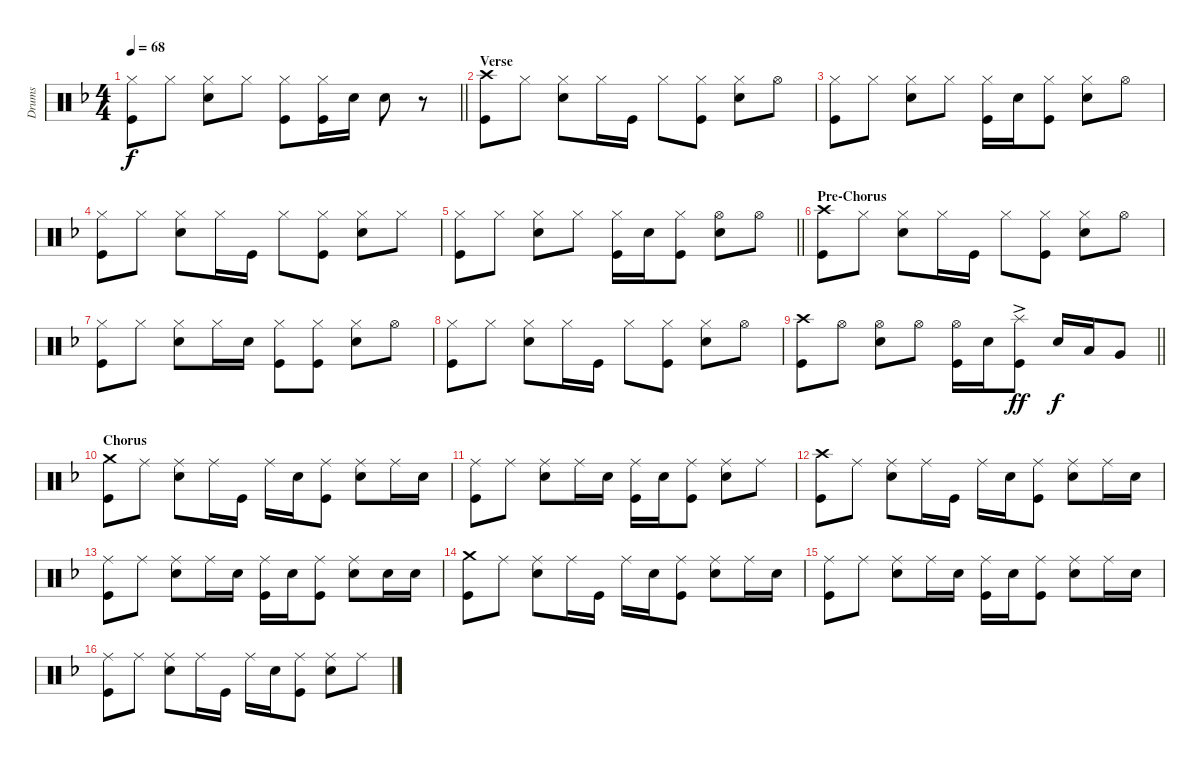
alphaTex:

\track ("Drums" "Drums") {instrument percussion}
\staff {score}
\articulation defaults
\ts (4 4)
\tempo 68
\clef neutral
\barLineRight lightlight
\ks f
("Hi-Hat (closed)" "Kick (hit)").8{dy f} "Hi-Hat (closed)".8 ("Hi-Hat (closed)" "Snare (hit) 2").8 "Hi-Hat (closed)".8 ("Hi-Hat (closed)" "Kick (hit)").8 ("Hi-Hat (closed)" "Kick (hit)").16 "Snare (hit) 2".16 "Snare (hit) 2".8 r.8 |
\section ("" "Verse")
("Crash high (hit)" "Kick (hit)").8 "Hi-Hat (closed)".8 ("Hi-Hat (closed)" "Snare (hit) 2").8 "Hi-Hat (closed)".16 "Kick (hit)".16 "Hi-Hat (closed)".8 ("Hi-Hat (closed)" "Kick (hit)").8 ("Hi-Hat (closed)" "Snare (hit) 2").8 "Hi-Hat (open)".8 |
("Hi-Hat (closed)" "Kick (hit)").8 "Hi-Hat (closed)".8 ("Hi-Hat (closed)" "Snare (hit) 2").8 "Hi-Hat (closed)".8 ("Hi-Hat (closed)" "Kick (hit)").16 "Snare (hit) 2".16 ("Hi-Hat (closed)" "Kick (hit)").8 ("Hi-Hat (closed)" "Snare (hit) 2").8 "Hi-Hat (open)".8 |
("Hi-Hat (closed)" "Kick (hit)").8 "Hi-Hat (closed)".8 ("Hi-Hat (closed)" "Snare (hit) 2").8 "Hi-Hat (closed)".16 "Kick (hit)".16 "Hi-Hat (closed)".8 ("Hi-Hat (closed)" "Kick (hit)").8 ("Hi-Hat (closed)" "Snare (hit) 2").8 "Hi-Hat (closed)".8 |
\barLineRight lightlight
("Hi-Hat (closed)" "Kick (hit)").8 "Hi-Hat (closed)".8 ("Hi-Hat (closed)" "Snare (hit) 2").8 "Hi-Hat (closed)".8 ("Hi-Hat (closed)" "Kick (hit)").16 "Snare (hit) 2".16 ("Hi-Hat (closed)" "Kick (hit)").8 ("Hi-Hat (open)" "Snare (hit) 2").8 "Hi-Hat (open)".8 |
\section ("" "Pre-Chorus")
("Crash high (hit)" "Kick (hit)").8 "Hi-Hat (closed)".8 ("Hi-Hat (closed)" "Snare (hit) 2").8 "Hi-Hat (closed)".16 "Kick (hit)".16 "Hi-Hat (closed)".8 ("Hi-Hat (closed)" "Kick (hit)").8 ("Hi-Hat (closed)" "Snare (hit) 2").8 "Hi-Hat (open)".8 |
("Hi-Hat (closed)" "Kick (hit)").8 "Hi-Hat (closed)".8 ("Hi-Hat (closed)" "Snare (hit) 2").8 "Hi-Hat (closed)".16 "Snare (hit) 2".16 ("Hi-Hat (closed)" "Kick (hit)").8 ("Hi-Hat (closed)" "Kick (hit)").8 ("Hi-Hat (closed)" "Snare (hit) 2").8 "Hi-Hat (open)".8 |
("Hi-Hat (closed)" "Kick (hit)").8 "Hi-Hat (closed)".8 ("Hi-Hat (closed)" "Snare (hit) 2").8 "Hi-Hat (closed)".16 "Kick (hit)".16 "Hi-Hat (closed)".8 ("Hi-Hat (closed)" "Kick (hit)").8 ("Hi-Hat (closed)" "Snare (hit) 2").8 "Hi-Hat (open)".8 |
\barLineRight lightlight
("Crash high (hit)" "Kick (hit)").8 "Hi-Hat (open)".8 ("Hi-Hat (open)" "Snare (hit) 2").8 "Hi-Hat (open)".8 ("Hi-Hat (open)" "Kick (hit)").16 "Snare (hit) 2".16 ("Splash (hit)"{ac} "Kick (hit)").8{dy ff} "Snare (hit) 2".16{dy f} "Low Tom (hit)".16 "Very Low Tom (hit)".8 |
\section ("" "Chorus")
("Crash medium (hit)" "Kick (hit)").8 "Ride (middle)".8 ("Ride (middle)" "Snare (hit) 2").8 "Ride (middle)".16 "Kick (hit)".16 "Ride (middle)".16 "Snare (hit) 2".16 ("Ride (middle)" "Kick (hit)").8 ("Ride (middle)" "Snare (hit) 2").8 "Ride (middle)".16 "Snare (hit) 2".16 |
("Ride (middle)" "Kick (hit)").8 "Ride (middle)".8 ("Ride (middle)" "Snare (hit) 2").8 "Ride (middle)".16 "Snare (hit) 2".16 ("Ride (middle)" "Kick (hit)").16 "Snare (hit) 2".16 ("Ride (middle)" "Kick (hit)").8 ("Ride (middle)" "Snare (hit) 2").8 "Ride (middle)".8 |
("Crash high (hit)" "Kick (hit)").8 "Ride (middle)".8 ("Ride (middle)" "Snare (hit) 2").8 "Ride (middle)".16 "Kick (hit)".16 "Ride (middle)".16 "Snare (hit) 2".16 ("Ride (middle)" "Kick (hit)").8 ("Ride (middle)" "Snare (hit) 2").8 "Ride (middle)".16 "Snare (hit) 2".16 |
("Ride (middle)" "Kick (hit)").8 "Ride (middle)".8 ("Ride (middle)" "Snare (hit) 2").8 "Ride (middle)".16 "Snare (hit) 2".16 ("Ride (middle)" "Kick (hit)").16 "Snare (hit) 2".16 ("Ride (middle)" "Kick (hit)").8 ("Ride (middle)" "Snare (hit) 2").8 "Snare (hit) 2".16 "Snare (hit) 2".16 |
("Crash medium (hit)" "Kick (hit)").8 "Ride (middle)".8 ("Ride (middle)" "Snare (hit) 2").8 "Ride (middle)".16 "Kick (hit)".16 "Ride (middle)".16 "Snare (hit) 2".16 ("Ride (middle)" "Kick (hit)").8 ("Ride (middle)" "Snare (hit) 2").8 "Ride (middle)".16 "Snare (hit) 2".16 |
("Ride (middle)" "Kick (hit)").8 "Ride (middle)".8 ("Ride (middle)" "Snare (hit) 2").8 "Ride (middle)".16 "Snare (hit) 2".16 ("Ride (middle)" "Kick (hit)").16 "Snare (hit) 2".16 ("Ride (middle)" "Kick (hit)").8 ("Ride (middle)" "Snare (hit) 2").8 "Ride (middle)".16 "Snare (hit) 2".16 |
("Ride (middle)" "Kick (hit)").8 "Ride (middle)".8 ("Ride (middle)" "Snare (hit) 2").8 "Ride (middle)".16 "Kick (hit)".16 "Ride (middle)".16 "Snare (hit) 2".16 ("Ride (middle)" "Kick (hit)").8 ("Ride (middle)" "Snare (hit) 2").8 "Ride (middle)".8
